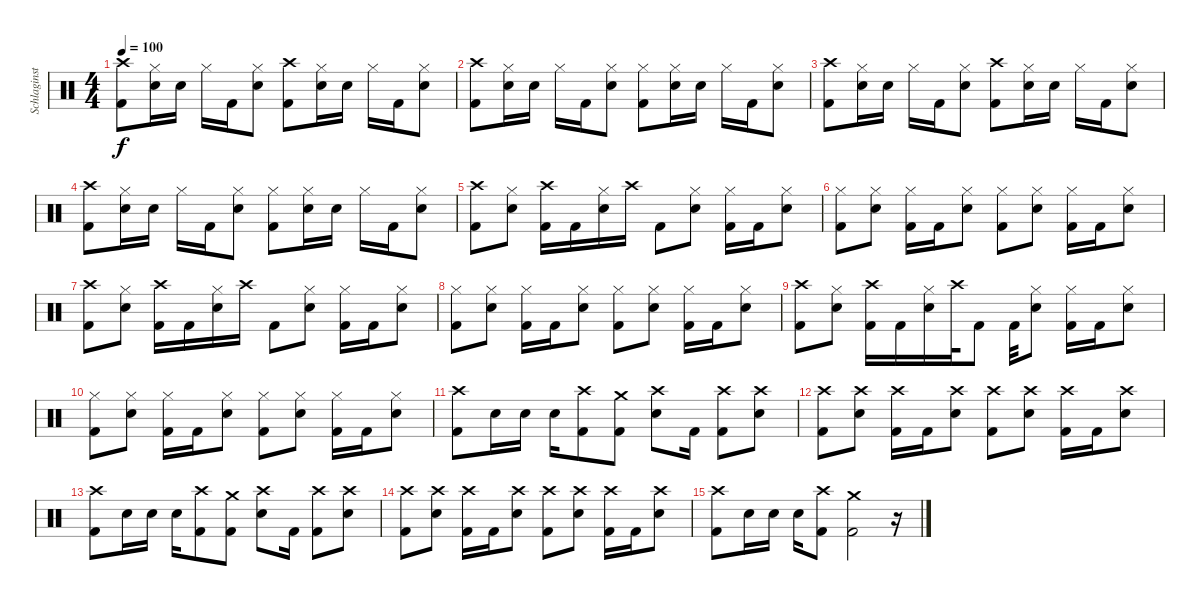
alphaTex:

\track ("Schlaginstrumente - Auswahl" "Schlaginst") {instrument percussion}
\staff {score}
\articulation defaults
\ts (4 4)
\tempo 100
\clef neutral
\ks c
("Crash high (hit)" "Kick (hit) 2").8{dy f} ("Hi-Hat (closed)" "Snare (hit) 2").16 "Snare (hit) 2".16 "Hi-Hat (closed)".16 "Kick (hit) 2".16 ("Hi-Hat (closed)" "Snare (hit) 2").8 ("Crash high (hit)" "Kick (hit) 2").8 ("Hi-Hat (closed)" "Snare (hit) 2").16 "Snare (hit) 2".16 "Hi-Hat (closed)".16 "Kick (hit) 2".16 ("Hi-Hat (closed)" "Snare (hit) 2").8 |
("Crash high (hit)" "Kick (hit) 2").8 ("Hi-Hat (closed)" "Snare (hit) 2").16 "Snare (hit) 2".16 "Hi-Hat (closed)".16 "Kick (hit) 2".16 ("Hi-Hat (closed)" "Snare (hit) 2").8 ("Hi-Hat (closed)" "Kick (hit) 2").8 ("Hi-Hat (closed)" "Snare (hit) 2").16 "Snare (hit) 2".16 "Hi-Hat (closed)".16 "Kick (hit) 2".16 ("Hi-Hat (closed)" "Snare (hit) 2").8 |
("Crash high (hit)" "Kick (hit) 2").8 ("Hi-Hat (closed)" "Snare (hit) 2").16 "Snare (hit) 2".16 "Hi-Hat (closed)".16 "Kick (hit) 2".16 ("Hi-Hat (closed)" "Snare (hit) 2").8 ("Crash high (hit)" "Kick (hit) 2").8 ("Hi-Hat (closed)" "Snare (hit) 2").16 "Snare (hit) 2".16 "Hi-Hat (closed)".16 "Kick (hit) 2".16 ("Hi-Hat (closed)" "Snare (hit) 2").8 |
("Crash high (hit)" "Kick (hit) 2").8 ("Hi-Hat (closed)" "Snare (hit) 2").16 "Snare (hit) 2".16 "Hi-Hat (closed)".16 "Kick (hit) 2".16 ("Hi-Hat (closed)" "Snare (hit) 2").8 ("Hi-Hat (closed)" "Kick (hit) 2").8 ("Hi-Hat (closed)" "Snare (hit) 2").16 "Snare (hit) 2".16 "Hi-Hat (closed)".16 "Kick (hit) 2".16 ("Hi-Hat (closed)" "Snare (hit) 2").8 |
("Crash high (hit)" "Kick (hit) 2").8 ("Hi-Hat (closed)" "Snare (hit) 2").8 ("Crash high (hit)" "Kick (hit) 2").16 "Kick (hit) 2".16 ("Hi-Hat (closed)" "Snare (hit) 2").16 "Crash high (hit)".16 "Kick (hit) 2".8 ("Hi-Hat (closed)" "Snare (hit) 2").8 ("Hi-Hat (closed)" "Kick (hit) 2").16 "Kick (hit) 2".16 ("Hi-Hat (closed)" "Snare (hit) 2").8 |
("Hi-Hat (closed)" "Kick (hit) 2").8 ("Hi-Hat (closed)" "Snare (hit) 2").8 ("Hi-Hat (closed)" "Kick (hit) 2").16 "Kick (hit) 2".16 ("Hi-Hat (closed)" "Snare (hit) 2").8 ("Hi-Hat (closed)" "Kick (hit) 2").8 ("Hi-Hat (closed)" "Snare (hit) 2").8 ("Hi-Hat (closed)" "Kick (hit) 2").16 "Kick (hit) 2".16 ("Hi-Hat (closed)" "Snare (hit) 2").8 |
("Crash high (hit)" "Kick (hit) 2").8 ("Hi-Hat (closed)" "Snare (hit) 2").8 ("Crash high (hit)" "Kick (hit) 2").16 "Kick (hit) 2".16 ("Hi-Hat (closed)" "Snare (hit) 2").16 "Crash high (hit)".16 "Kick (hit) 2".8 ("Hi-Hat (closed)" "Snare (hit) 2").8 ("Hi-Hat (closed)" "Kick (hit) 2").16 "Kick (hit) 2".16 ("Hi-Hat (closed)" "Snare (hit) 2").8 |
("Hi-Hat (closed)" "Kick (hit) 2").8 ("Hi-Hat (closed)" "Snare (hit) 2").8 ("Hi-Hat (closed)" "Kick (hit) 2").16 "Kick (hit) 2".16 ("Hi-Hat (closed)" "Snare (hit) 2").8 ("Hi-Hat (closed)" "Kick (hit) 2").8 ("Hi-Hat (closed)" "Snare (hit) 2").8 ("Hi-Hat (closed)" "Kick (hit) 2").16 "Kick (hit) 2".16 ("Hi-Hat (closed)" "Snare (hit) 2").8 |
("Crash high (hit)" "Kick (hit) 2").8 ("Hi-Hat (closed)" "Snare (hit) 2").8 ("Crash high (hit)" "Kick (hit) 2").16 "Kick (hit) 2".16 ("Hi-Hat (closed)" "Snare (hit) 2").16 "Crash high (hit)".32 "Kick (hit) 2".8 "Kick (hit) 2".32 ("Hi-Hat (closed)" "Snare (hit) 2").8 ("Hi-Hat (closed)" "Kick (hit) 2").16 "Kick (hit) 2".16 ("Hi-Hat (closed)" "Snare (hit) 2").8 |
("Hi-Hat (closed)" "Kick (hit) 2").8 ("Hi-Hat (closed)" "Snare (hit) 2").8 ("Hi-Hat (closed)" "Kick (hit) 2").16 "Kick (hit) 2".16 ("Hi-Hat (closed)" "Snare (hit) 2").8 ("Hi-Hat (closed)" "Kick (hit) 2").8 ("Hi-Hat (closed)" "Snare (hit) 2").8 ("Hi-Hat (closed)" "Kick (hit) 2").16 "Kick (hit) 2".16 ("Hi-Hat (closed)" "Snare (hit) 2").8 |
("Crash high (hit)" "Kick (hit) 2").8 "Snare (hit) 2".16 "Snare (hit) 2".16 "Snare (hit) 2".16 ("Crash high (hit)" "Kick (hit) 2").8 ("Crash medium (hit)" "Kick (hit) 2").8 ("Crash high (hit)" "Snare (hit) 2").8 "Kick (hit) 2".16 ("Crash high (hit)" "Kick (hit) 2").8 ("Crash high (hit)" "Snare (hit) 2").8 |
("Crash high (hit)" "Kick (hit) 2").8 ("Crash high (hit)" "Snare (hit) 2").8 ("Crash high (hit)" "Kick (hit) 2").16 "Kick (hit) 2".16 ("Crash high (hit)" "Snare (hit) 2").8 ("Crash high (hit)" "Kick (hit) 2").8 ("Crash high (hit)" "Snare (hit) 2").8 ("Crash high (hit)" "Kick (hit) 2").16 "Kick (hit) 2".16 ("Crash high (hit)" "Snare (hit) 2").8 |
("Crash high (hit)" "Kick (hit) 2").8 "Snare (hit) 2".16 "Snare (hit) 2".16 "Snare (hit) 2".16 ("Crash high (hit)" "Kick (hit) 2").8 ("Crash medium (hit)" "Kick (hit) 2").8 ("Crash high (hit)" "Snare (hit) 2").8 "Kick (hit) 2".16 ("Crash high (hit)" "Kick (hit) 2").8 ("Crash high (hit)" "Snare (hit) 2").8 |
("Crash high (hit)" "Kick (hit) 2").8 ("Crash high (hit)" "Snare (hit) 2").8 ("Crash high (hit)" "Kick (hit) 2").16 "Kick (hit) 2".16 ("Crash high (hit)" "Snare (hit) 2").8 ("Crash high (hit)" "Kick (hit) 2").8 ("Crash high (hit)" "Snare (hit) 2").8 ("Crash high (hit)" "Kick (hit) 2").16 "Kick (hit) 2".16 ("Crash high (hit)" "Snare (hit) 2").8 |
("Crash high (hit)" "Kick (hit) 2").8 "Snare (hit) 2".16 "Snare (hit) 2".16 "Snare (hit) 2".16 ("Crash high (hit)" "Kick (hit) 2").8 ("Crash medium (hit)" "Kick (hit) 2").2 r.16
